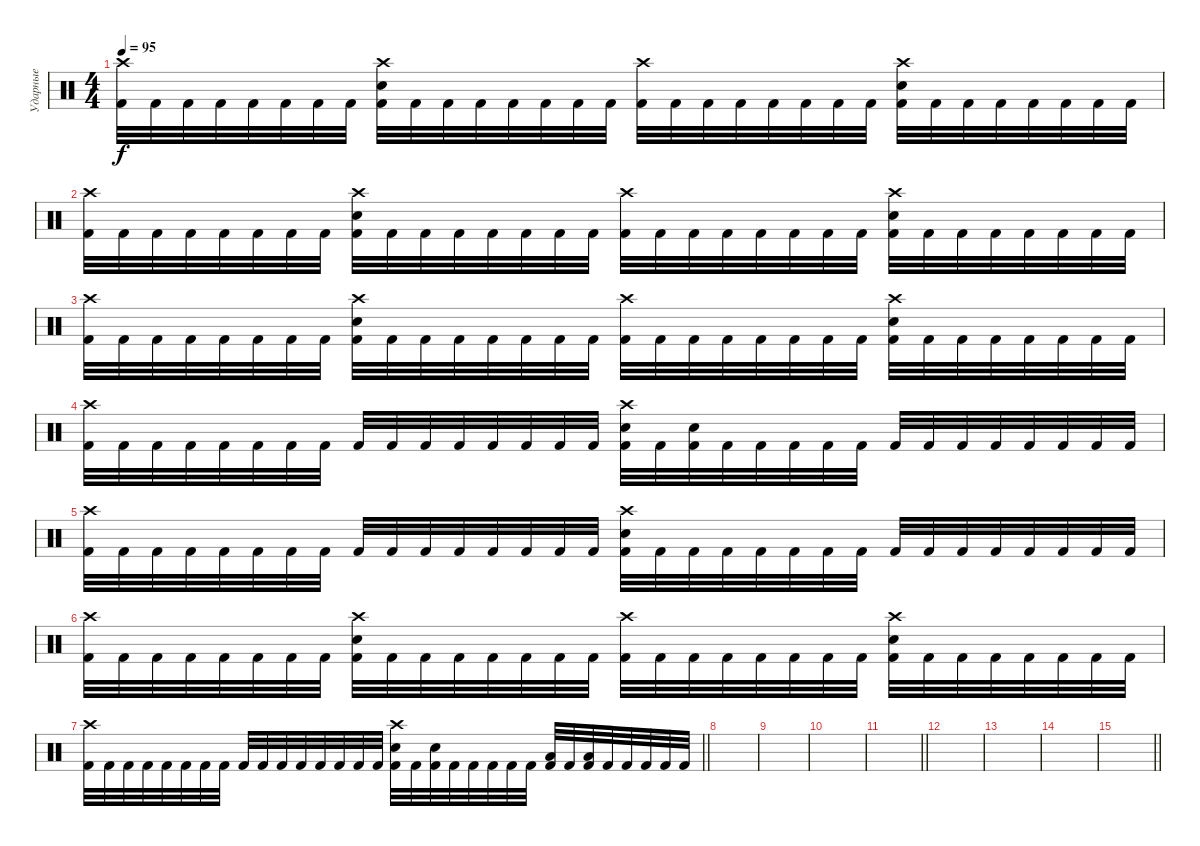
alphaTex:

\track ("Ударные" "Ударные") {instrument percussion}
\staff
\articulation defaults
\ts (4 4)
\tempo 95
\clef neutral
\ks c
("Crash high (hit)" "Kick (hit) 2").32{dy f} "Kick (hit) 2".32 "Kick (hit) 2".32 "Kick (hit) 2".32 "Kick (hit) 2".32 "Kick (hit) 2".32 "Kick (hit) 2".32 "Kick (hit) 2".32 ("Crash high (hit)" "Electric Snare (hit)" "Kick (hit) 2").32 "Kick (hit) 2".32 "Kick (hit) 2".32 "Kick (hit) 2".32 "Kick (hit) 2".32 "Kick (hit) 2".32 "Kick (hit) 2".32 "Kick (hit) 2".32 ("Crash high (hit)" "Kick (hit) 2").32 "Kick (hit) 2".32 "Kick (hit) 2".32 "Kick (hit) 2".32 "Kick (hit) 2".32 "Kick (hit) 2".32 "Kick (hit) 2".32 "Kick (hit) 2".32 ("Crash high (hit)" "Electric Snare (hit)" "Kick (hit) 2").32 "Kick (hit) 2".32 "Kick (hit) 2".32 "Kick (hit) 2".32 "Kick (hit) 2".32 "Kick (hit) 2".32 "Kick (hit) 2".32 "Kick (hit) 2".32 |
("Crash high (hit)" "Kick (hit) 2").32 "Kick (hit) 2".32 "Kick (hit) 2".32 "Kick (hit) 2".32 "Kick (hit) 2".32 "Kick (hit) 2".32 "Kick (hit) 2".32 "Kick (hit) 2".32 ("Crash high (hit)" "Electric Snare (hit)" "Kick (hit) 2").32 "Kick (hit) 2".32 "Kick (hit) 2".32 "Kick (hit) 2".32 "Kick (hit) 2".32 "Kick (hit) 2".32 "Kick (hit) 2".32 "Kick (hit) 2".32 ("Crash high (hit)" "Kick (hit) 2").32 "Kick (hit) 2".32 "Kick (hit) 2".32 "Kick (hit) 2".32 "Kick (hit) 2".32 "Kick (hit) 2".32 "Kick (hit) 2".32 "Kick (hit) 2".32 ("Crash high (hit)" "Electric Snare (hit)" "Kick (hit) 2").32 "Kick (hit) 2".32 "Kick (hit) 2".32 "Kick (hit) 2".32 "Kick (hit) 2".32 "Kick (hit) 2".32 "Kick (hit) 2".32 "Kick (hit) 2".32 |
("Crash high (hit)" "Kick (hit) 2").32 "Kick (hit) 2".32 "Kick (hit) 2".32 "Kick (hit) 2".32 "Kick (hit) 2".32 "Kick (hit) 2".32 "Kick (hit) 2".32 "Kick (hit) 2".32 ("Crash high (hit)" "Electric Snare (hit)" "Kick (hit) 2").32 "Kick (hit) 2".32 "Kick (hit) 2".32 "Kick (hit) 2".32 "Kick (hit) 2".32 "Kick (hit) 2".32 "Kick (hit) 2".32 "Kick (hit) 2".32 ("Crash high (hit)" "Kick (hit) 2").32 "Kick (hit) 2".32 "Kick (hit) 2".32 "Kick (hit) 2".32 "Kick (hit) 2".32 "Kick (hit) 2".32 "Kick (hit) 2".32 "Kick (hit) 2".32 ("Crash high (hit)" "Electric Snare (hit)" "Kick (hit) 2").32 "Kick (hit) 2".32 "Kick (hit) 2".32 "Kick (hit) 2".32 "Kick (hit) 2".32 "Kick (hit) 2".32 "Kick (hit) 2".32 "Kick (hit) 2".32 |
("Crash high (hit)" "Kick (hit) 2").32 "Kick (hit) 2".32 "Kick (hit) 2".32 "Kick (hit) 2".32 "Kick (hit) 2".32 "Kick (hit) 2".32 "Kick (hit) 2".32 "Kick (hit) 2".32 "Kick (hit) 2".32 "Kick (hit) 2".32 "Kick (hit) 2".32 "Kick (hit) 2".32 "Kick (hit) 2".32 "Kick (hit) 2".32 "Kick (hit) 2".32 "Kick (hit) 2".32 ("Crash high (hit)" "Electric Snare (hit)" "Kick (hit) 2").32 "Kick (hit) 2".32 ("Electric Snare (hit)" "Kick (hit) 2").32 "Kick (hit) 2".32 "Kick (hit) 2".32 "Kick (hit) 2".32 "Kick (hit) 2".32 "Kick (hit) 2".32 "Kick (hit) 2".32 "Kick (hit) 2".32 "Kick (hit) 2".32 "Kick (hit) 2".32 "Kick (hit) 2".32 "Kick (hit) 2".32 "Kick (hit) 2".32 "Kick (hit) 2".32 |
("Crash high (hit)" "Kick (hit) 2").32 "Kick (hit) 2".32 "Kick (hit) 2".32 "Kick (hit) 2".32 "Kick (hit) 2".32 "Kick (hit) 2".32 "Kick (hit) 2".32 "Kick (hit) 2".32 "Kick (hit) 2".32 "Kick (hit) 2".32 "Kick (hit) 2".32 "Kick (hit) 2".32 "Kick (hit) 2".32 "Kick (hit) 2".32 "Kick (hit) 2".32 "Kick (hit) 2".32 ("Crash high (hit)" "Electric Snare (hit)" "Kick (hit) 2").32 "Kick (hit) 2".32 "Kick (hit) 2".32 "Kick (hit) 2".32 "Kick (hit) 2".32 "Kick (hit) 2".32 "Kick (hit) 2".32 "Kick (hit) 2".32 "Kick (hit) 2".32 "Kick (hit) 2".32 "Kick (hit) 2".32 "Kick (hit) 2".32 "Kick (hit) 2".32 "Kick (hit) 2".32 "Kick (hit) 2".32 "Kick (hit) 2".32 |
("Crash high (hit)" "Kick (hit) 2").32 "Kick (hit) 2".32 "Kick (hit) 2".32 "Kick (hit) 2".32 "Kick (hit) 2".32 "Kick (hit) 2".32 "Kick (hit) 2".32 "Kick (hit) 2".32 ("Crash high (hit)" "Electric Snare (hit)" "Kick (hit) 2").32 "Kick (hit) 2".32 "Kick (hit) 2".32 "Kick (hit) 2".32 "Kick (hit) 2".32 "Kick (hit) 2".32 "Kick (hit) 2".32 "Kick (hit) 2".32 ("Crash high (hit)" "Kick (hit) 2").32 "Kick (hit) 2".32 "Kick (hit) 2".32 "Kick (hit) 2".32 "Kick (hit) 2".32 "Kick (hit) 2".32 "Kick (hit) 2".32 "Kick (hit) 2".32 ("Crash high (hit)" "Electric Snare (hit)" "Kick (hit) 2").32 "Kick (hit) 2".32 "Kick (hit) 2".32 "Kick (hit) 2".32 "Kick (hit) 2".32 "Kick (hit) 2".32 "Kick (hit) 2".32 "Kick (hit) 2".32 |
\barLineRight lightlight
("Crash high (hit)" "Kick (hit) 2").32 "Kick (hit) 2".32 "Kick (hit) 2".32 "Kick (hit) 2".32 "Kick (hit) 2".32 "Kick (hit) 2".32 "Kick (hit) 2".32 "Kick (hit) 2".32 "Kick (hit) 2".32 "Kick (hit) 2".32 "Kick (hit) 2".32 "Kick (hit) 2".32 "Kick (hit) 2".32 "Kick (hit) 2".32 "Kick (hit) 2".32 "Kick (hit) 2".32 ("Crash high (hit)" "Electric Snare (hit)" "Kick (hit) 2").32 "Kick (hit) 2".32 ("Electric Snare (hit)" "Kick (hit) 2").32 "Kick (hit) 2".32 "Kick (hit) 2".32 "Kick (hit) 2".32 "Kick (hit) 2".32 "Kick (hit) 2".32 ("Low Tom (hit)" "Kick (hit) 2").32 "Kick (hit) 2".32 ("Low Tom (hit)" "Kick (hit) 2").32 "Kick (hit) 2".32 "Kick (hit) 2".32 "Kick (hit) 2".32 "Kick (hit) 2".32 "Kick (hit) 2".32 |
\section ("" "")
|
|
|
\barLineRight lightlight
|
|
|
|
\barLineRight lightlight
